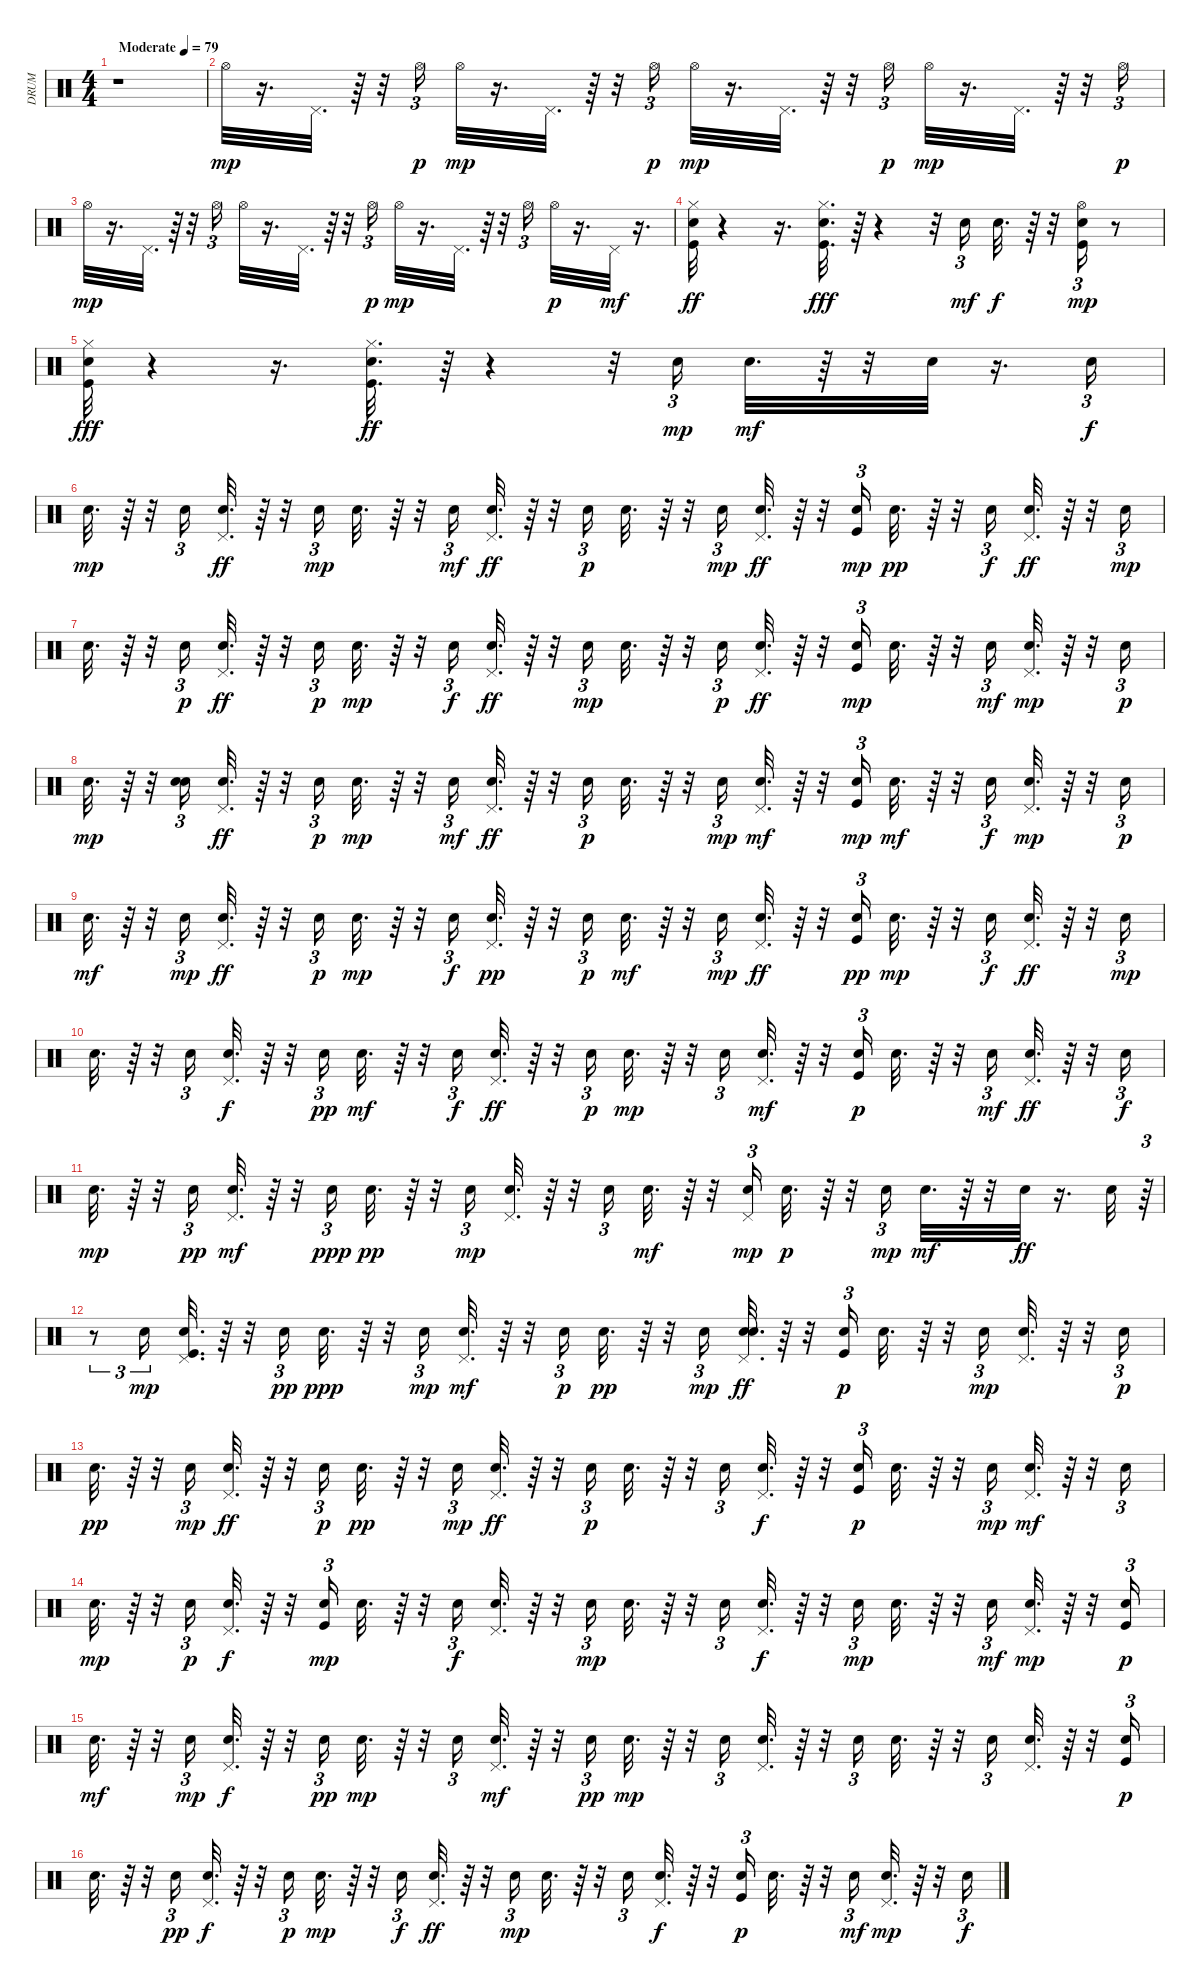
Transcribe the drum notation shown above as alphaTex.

\track ("DRUM" "DRUM") {instrument percussion}
\staff {score}
\articulation defaults
\ts (4 4)
\tempo (79 "Moderate")
\clef neutral
\ks c
r.1{dy mp} |
"Hi-Hat (open)".32 r.16{d} "Pedal Hi-Hat (hit)".32{d} r.64 r.32 "Hi-Hat (open)".16{tu (3 2) dy p} "Hi-Hat (open)".32{dy mp} r.16{d} "Pedal Hi-Hat (hit)".32{d} r.64 r.32 "Hi-Hat (open)".16{tu (3 2) dy p} "Hi-Hat (open)".32{dy mp} r.16{d} "Pedal Hi-Hat (hit)".32{d} r.64 r.32 "Hi-Hat (open)".16{tu (3 2) dy p} "Hi-Hat (open)".32{dy mp} r.16{d} "Pedal Hi-Hat (hit)".32{d} r.64 r.32 "Hi-Hat (open)".16{tu (3 2) dy p} |
"Hi-Hat (open)".32{dy mp} r.16{d} "Pedal Hi-Hat (hit)".32{d} r.64 r.32 "Hi-Hat (open)".16{tu (3 2)} "Hi-Hat (open)".32 r.16{d} "Pedal Hi-Hat (hit)".32{d} r.64 r.32 "Hi-Hat (open)".16{tu (3 2) dy p} "Hi-Hat (open)".32{dy mp} r.16{d} "Pedal Hi-Hat (hit)".32{d} r.64 r.32 "Hi-Hat (open)".16{tu (3 2)} "Hi-Hat (open)".32{dy p} r.16{d} "Pedal Hi-Hat (hit)".32{dy mf} r.16{d} |
("Kick (hit)" "Hand Clap (hit)" "Hi-Hat (closed)").32{dy ff} r.4 r.16{d} ("Kick (hit)" "Hand Clap (hit)" "Hi-Hat (closed)").32{d dy fff} r.64 r.4 r.32 "Hand Clap (hit)".16{tu (3 2) dy mf} "Hand Clap (hit)".32{d dy f} r.64 r.32 ("Kick (hit)" "Hand Clap (hit)" "Hi-Hat (open)").16{tu (3 2) dy mp} r.8 |
("Kick (hit)" "Hand Clap (hit)" "Hi-Hat (closed)").32{dy fff} r.4 r.16{d} ("Kick (hit)" "Hand Clap (hit)" "Hi-Hat (closed)").32{d dy ff} r.64 r.4 r.32 "Hand Clap (hit)".16{tu (3 2) dy mp} "Hand Clap (hit)".32{d dy mf} r.64 r.32 "Hand Clap (hit)".32 r.16{d} "Hand Clap (hit)".16{tu (3 2) dy f} |
"Snare (hit) 2".32{d dy mp} r.64 r.32 "Snare (hit) 2".16{tu (3 2)} ("Snare (hit) 2" "Pedal Hi-Hat (hit)").32{d dy ff} r.64 r.32 "Snare (hit) 2".16{tu (3 2) dy mp} "Snare (hit) 2".32{d} r.64 r.32 "Snare (hit) 2".16{tu (3 2) dy mf} ("Pedal Hi-Hat (hit)" "Snare (hit) 2").32{d dy ff} r.64 r.32 "Snare (hit) 2".16{tu (3 2) dy p} "Snare (hit) 2".32{d} r.64 r.32 "Snare (hit) 2".16{tu (3 2) dy mp} ("Snare (hit) 2" "Pedal Hi-Hat (hit)").32{d dy ff} r.64 r.32 ("Snare (hit) 2" "Kick (hit)").16{tu (3 2) dy mp} "Snare (hit) 2".32{d dy pp} r.64 r.32 "Hand Clap (hit)".16{tu (3 2) dy f} ("Snare (hit) 2" "Pedal Hi-Hat (hit)").32{d dy ff} r.64 r.32 "Snare (hit) 2".16{tu (3 2) dy mp} |
"Snare (hit) 2".32{d} r.64 r.32 "Snare (hit) 2".16{tu (3 2) dy p} ("Snare (hit) 2" "Pedal Hi-Hat (hit)").32{d dy ff} r.64 r.32 "Snare (hit) 2".16{tu (3 2) dy p} "Snare (hit) 2".32{d dy mp} r.64 r.32 "Snare (hit) 2".16{tu (3 2) dy f} ("Snare (hit) 2" "Pedal Hi-Hat (hit)").32{d dy ff} r.64 r.32 "Snare (hit) 2".16{tu (3 2) dy mp} "Snare (hit) 2".32{d} r.64 r.32 "Snare (hit) 2".16{tu (3 2) dy p} ("Snare (hit) 2" "Pedal Hi-Hat (hit)").32{d dy ff} r.64 r.32 ("Kick (hit)" "Snare (hit) 2").16{tu (3 2) dy mp} "Snare (hit) 2".32{d} r.64 r.32 "Hand Clap (hit)".16{tu (3 2) dy mf} ("Pedal Hi-Hat (hit)" "Snare (hit) 2").32{d dy mp} r.64 r.32 "Snare (hit) 2".16{tu (3 2) dy p} |
"Snare (hit) 2".32{d dy mp} r.64 r.32 ("Electric Snare (hit)" "Snare (hit) 2").16{tu (3 2)} ("Snare (hit) 2" "Pedal Hi-Hat (hit)").32{d dy ff} r.64 r.32 "Snare (hit) 2".16{tu (3 2) dy p} "Snare (hit) 2".32{d dy mp} r.64 r.32 "Snare (hit) 2".16{tu (3 2) dy mf} ("Snare (hit) 2" "Pedal Hi-Hat (hit)").32{d dy ff} r.64 r.32 "Snare (hit) 2".16{tu (3 2) dy p} "Snare (hit) 2".32{d} r.64 r.32 "Snare (hit) 2".16{tu (3 2) dy mp} ("Snare (hit) 2" "Pedal Hi-Hat (hit)").32{d dy mf} r.64 r.32 ("Snare (hit) 2" "Kick (hit)").16{tu (3 2) dy mp} "Snare (hit) 2".32{d dy mf} r.64 r.32 "Hand Clap (hit)".16{tu (3 2) dy f} ("Pedal Hi-Hat (hit)" "Snare (hit) 2").32{d dy mp} r.64 r.32 "Snare (hit) 2".16{tu (3 2) dy p} |
"Snare (hit) 2".32{d dy mf} r.64 r.32 "Snare (hit) 2".16{tu (3 2) dy mp} ("Pedal Hi-Hat (hit)" "Snare (hit) 2").32{d dy ff} r.64 r.32 "Snare (hit) 2".16{tu (3 2) dy p} "Snare (hit) 2".32{d dy mp} r.64 r.32 "Snare (hit) 2".16{tu (3 2) dy f} ("Snare (hit) 2" "Pedal Hi-Hat (hit)").32{d dy pp} r.64 r.32 "Snare (hit) 2".16{tu (3 2) dy p} "Snare (hit) 2".32{d dy mf} r.64 r.32 "Snare (hit) 2".16{tu (3 2) dy mp} ("Snare (hit) 2" "Pedal Hi-Hat (hit)").32{d dy ff} r.64 r.32 ("Snare (hit) 2" "Kick (hit)").16{tu (3 2) dy pp} "Snare (hit) 2".32{d dy mp} r.64 r.32 "Hand Clap (hit)".16{tu (3 2) dy f} ("Snare (hit) 2" "Pedal Hi-Hat (hit)").32{d dy ff} r.64 r.32 "Snare (hit) 2".16{tu (3 2) dy mp} |
"Snare (hit) 2".32{d} r.64 r.32 "Snare (hit) 2".16{tu (3 2)} ("Pedal Hi-Hat (hit)" "Snare (hit) 2").32{d dy f} r.64 r.32 "Snare (hit) 2".16{tu (3 2) dy pp} "Snare (hit) 2".32{d dy mf} r.64 r.32 "Snare (hit) 2".16{tu (3 2) dy f} ("Snare (hit) 2" "Pedal Hi-Hat (hit)").32{d dy ff} r.64 r.32 "Snare (hit) 2".16{tu (3 2) dy p} "Snare (hit) 2".32{d dy mp} r.64 r.32 "Snare (hit) 2".16{tu (3 2)} ("Snare (hit) 2" "Pedal Hi-Hat (hit)").32{d dy mf} r.64 r.32 ("Snare (hit) 2" "Kick (hit)").16{tu (3 2) dy p} "Snare (hit) 2".32{d} r.64 r.32 "Hand Clap (hit)".16{tu (3 2) dy mf} ("Snare (hit) 2" "Pedal Hi-Hat (hit)").32{d dy ff} r.64 r.32 "Hand Clap (hit)".16{tu (3 2) dy f} |
"Snare (hit) 2".32{d dy mp} r.64 r.32 "Snare (hit) 2".16{tu (3 2) dy pp} ("Hand Clap (hit)" "Pedal Hi-Hat (hit)").32{d dy mf} r.64 r.32 "Snare (hit) 2".16{tu (3 2) dy ppp} "Hand Clap (hit)".32{d dy pp} r.64 r.32 "Snare (hit) 2".16{tu (3 2) dy mp} ("Hand Clap (hit)" "Pedal Hi-Hat (hit)").32{d} r.64 r.32 "Snare (hit) 2".16{tu (3 2)} "Hand Clap (hit)".32{d dy mf} r.64 r.32 ("Pedal Hi-Hat (hit)" "Snare (hit) 2").16{tu (3 2) dy mp} "Hand Clap (hit)".32{d dy p} r.64 r.32 "Snare (hit) 2".16{tu (3 2) dy mp} "Hand Clap (hit)".32{d dy mf} r.64 r.32 "Hand Clap (hit)".32{dy ff} r.16{d} "Hand Clap (hit)".32 r.64{tu (3 2)} |
r.8{tu (3 2)} "Snare (hit) 2".16{tu (3 2) dy mp} ("Kick (hit)" "Hand Clap (hit)" "Pedal Hi-Hat (hit)").32{d} r.64 r.32 "Snare (hit) 2".16{tu (3 2) dy pp} "Snare (hit) 2".32{d dy ppp} r.64 r.32 "Snare (hit) 2".16{tu (3 2) dy mp} ("Pedal Hi-Hat (hit)" "Snare (hit) 2").32{d dy mf} r.64 r.32 "Snare (hit) 2".16{tu (3 2) dy p} "Snare (hit) 2".32{d dy pp} r.64 r.32 "Snare (hit) 2".16{tu (3 2) dy mp} ("Hand Clap (hit)" "Pedal Hi-Hat (hit)" "Snare (hit) 2").32{d dy ff} r.64 r.32 ("Snare (hit) 2" "Kick (hit)").16{tu (3 2) dy p} "Snare (hit) 2".32{d} r.64 r.32 "Snare (hit) 2".16{tu (3 2) dy mp} ("Pedal Hi-Hat (hit)" "Hand Clap (hit)").32{d} r.64 r.32 "Snare (hit) 2".16{tu (3 2) dy p} |
"Snare (hit) 2".32{d dy pp} r.64 r.32 "Snare (hit) 2".16{tu (3 2) dy mp} ("Snare (hit) 2" "Pedal Hi-Hat (hit)").32{d dy ff} r.64 r.32 "Snare (hit) 2".16{tu (3 2) dy p} "Snare (hit) 2".32{d dy pp} r.64 r.32 "Snare (hit) 2".16{tu (3 2) dy mp} ("Snare (hit) 2" "Pedal Hi-Hat (hit)").32{d dy ff} r.64 r.32 "Snare (hit) 2".16{tu (3 2) dy p} "Snare (hit) 2".32{d} r.64 r.32 "Snare (hit) 2".16{tu (3 2)} ("Snare (hit) 2" "Pedal Hi-Hat (hit)").32{d dy f} r.64 r.32 ("Hand Clap (hit)" "Kick (hit)").16{tu (3 2) dy p} "Snare (hit) 2".32{d} r.64 r.32 "Snare (hit) 2".16{tu (3 2) dy mp} ("Pedal Hi-Hat (hit)" "Snare (hit) 2").32{d dy mf} r.64 r.32 "Hand Clap (hit)".16{tu (3 2)} |
"Snare (hit) 2".32{d dy mp} r.64 r.32 "Snare (hit) 2".16{tu (3 2) dy p} ("Pedal Hi-Hat (hit)" "Snare (hit) 2").32{d dy f} r.64 r.32 ("Snare (hit) 2" "Kick (hit)").16{tu (3 2) dy mp} "Snare (hit) 2".32{d} r.64 r.32 "Snare (hit) 2".16{tu (3 2) dy f} ("Pedal Hi-Hat (hit)" "Snare (hit) 2").32{d} r.64 r.32 "Snare (hit) 2".16{tu (3 2) dy mp} "Snare (hit) 2".32{d} r.64 r.32 "Snare (hit) 2".16{tu (3 2)} ("Snare (hit) 2" "Pedal Hi-Hat (hit)").32{d dy f} r.64 r.32 "Snare (hit) 2".16{tu (3 2) dy mp} "Snare (hit) 2".32{d} r.64 r.32 "Hand Clap (hit)".16{tu (3 2) dy mf} ("Pedal Hi-Hat (hit)" "Snare (hit) 2").32{d dy mp} r.64 r.32 ("Snare (hit) 2" "Kick (hit)").16{tu (3 2) dy p} |
"Snare (hit) 2".32{d dy mf} r.64 r.32 "Snare (hit) 2".16{tu (3 2) dy mp} ("Snare (hit) 2" "Pedal Hi-Hat (hit)").32{d dy f} r.64 r.32 "Snare (hit) 2".16{tu (3 2) dy pp} "Snare (hit) 2".32{d dy mp} r.64 r.32 "Snare (hit) 2".16{tu (3 2)} ("Snare (hit) 2" "Pedal Hi-Hat (hit)").32{d dy mf} r.64 r.32 "Snare (hit) 2".16{tu (3 2) dy pp} "Snare (hit) 2".32{d dy mp} r.64 r.32 "Snare (hit) 2".16{tu (3 2)} ("Pedal Hi-Hat (hit)" "Snare (hit) 2").32{d} r.64 r.32 "Hand Clap (hit)".16{tu (3 2)} "Snare (hit) 2".32{d} r.64 r.32 "Snare (hit) 2".16{tu (3 2)} ("Snare (hit) 2" "Pedal Hi-Hat (hit)").32{d} r.64 r.32 ("Hand Clap (hit)" "Kick (hit)").16{tu (3 2) dy p} |
"Snare (hit) 2".32{d} r.64 r.32 "Snare (hit) 2".16{tu (3 2) dy pp} ("Snare (hit) 2" "Pedal Hi-Hat (hit)").32{d dy f} r.64 r.32 "Snare (hit) 2".16{tu (3 2) dy p} "Snare (hit) 2".32{d dy mp} r.64 r.32 "Snare (hit) 2".16{tu (3 2) dy f} ("Snare (hit) 2" "Pedal Hi-Hat (hit)").32{d dy ff} r.64 r.32 "Snare (hit) 2".16{tu (3 2) dy mp} "Snare (hit) 2".32{d} r.64 r.32 "Snare (hit) 2".16{tu (3 2)} ("Snare (hit) 2" "Pedal Hi-Hat (hit)").32{d dy f} r.64 r.32 ("Snare (hit) 2" "Kick (hit)").16{tu (3 2) dy p} "Snare (hit) 2".32{d} r.64 r.32 "Hand Clap (hit)".16{tu (3 2) dy mf} ("Snare (hit) 2" "Pedal Hi-Hat (hit)").32{d dy mp} r.64 r.32 "Hand Clap (hit)".16{tu (3 2) dy f}
